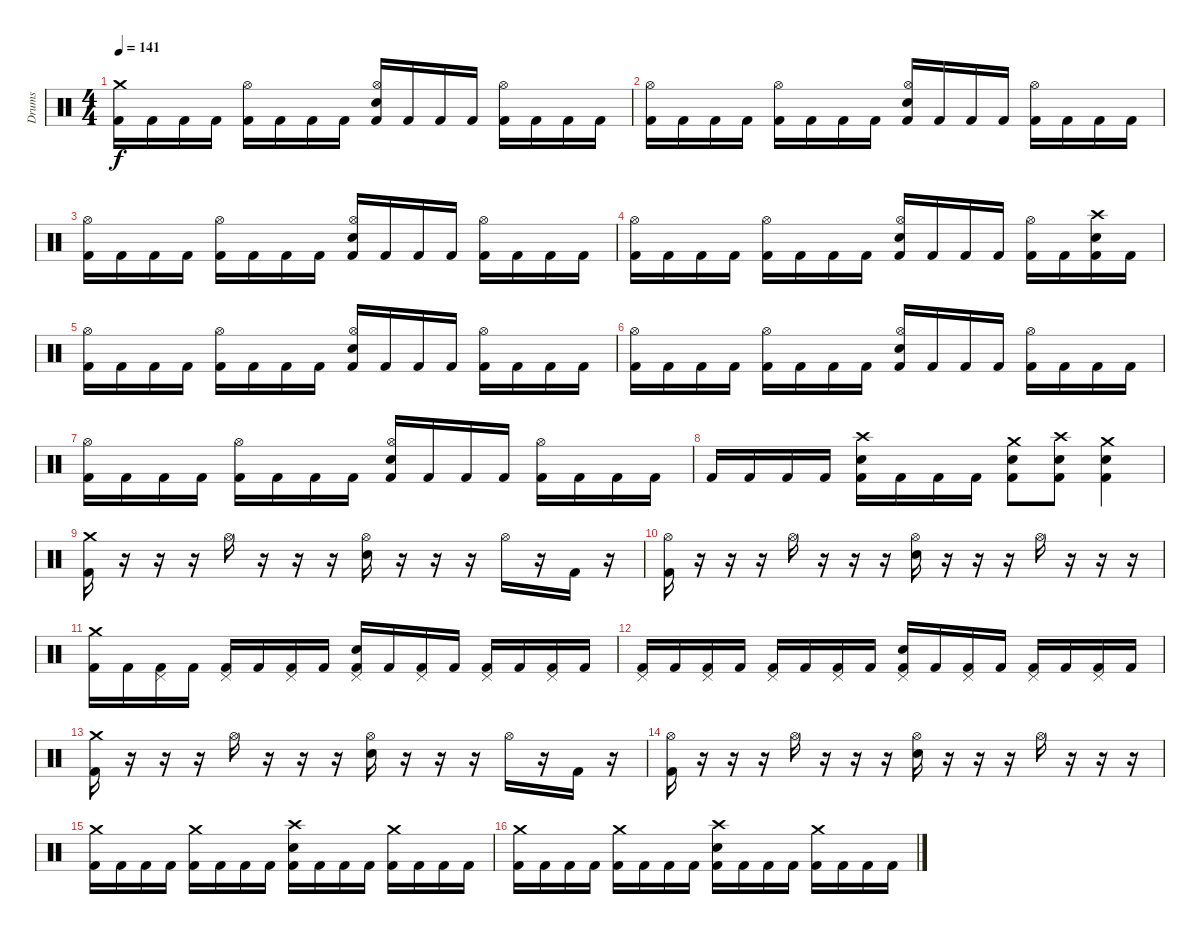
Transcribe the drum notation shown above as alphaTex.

\track ("Drums" "Drums") {instrument percussion}
\staff {score}
\articulation defaults
\ts (4 4)
\tempo 141
\clef neutral
\ks c
("Crash medium (hit)" "Kick (hit) 2").16{dy f} "Kick (hit) 2".16 "Kick (hit) 2".16 "Kick (hit) 2".16 ("Hi-Hat (open)" "Kick (hit) 2").16 "Kick (hit) 2".16 "Kick (hit) 2".16 "Kick (hit) 2".16 ("Hi-Hat (open)" "Electric Snare (hit)" "Kick (hit) 2").16 "Kick (hit) 2".16 "Kick (hit) 2".16 "Kick (hit) 2".16 ("Hi-Hat (open)" "Kick (hit) 2").16 "Kick (hit) 2".16 "Kick (hit) 2".16 "Kick (hit) 2".16 |
("Hi-Hat (open)" "Kick (hit) 2").16 "Kick (hit) 2".16 "Kick (hit) 2".16 "Kick (hit) 2".16 ("Hi-Hat (open)" "Kick (hit) 2").16 "Kick (hit) 2".16 "Kick (hit) 2".16 "Kick (hit) 2".16 ("Hi-Hat (open)" "Electric Snare (hit)" "Kick (hit) 2").16 "Kick (hit) 2".16 "Kick (hit) 2".16 "Kick (hit) 2".16 ("Hi-Hat (open)" "Kick (hit) 2").16 "Kick (hit) 2".16 "Kick (hit) 2".16 "Kick (hit) 2".16 |
("Hi-Hat (open)" "Kick (hit) 2").16 "Kick (hit) 2".16 "Kick (hit) 2".16 "Kick (hit) 2".16 ("Hi-Hat (open)" "Kick (hit) 2").16 "Kick (hit) 2".16 "Kick (hit) 2".16 "Kick (hit) 2".16 ("Hi-Hat (open)" "Electric Snare (hit)" "Kick (hit) 2").16 "Kick (hit) 2".16 "Kick (hit) 2".16 "Kick (hit) 2".16 ("Hi-Hat (open)" "Kick (hit) 2").16 "Kick (hit) 2".16 "Kick (hit) 2".16 "Kick (hit) 2".16 |
("Hi-Hat (open)" "Kick (hit) 2").16 "Kick (hit) 2".16 "Kick (hit) 2".16 "Kick (hit) 2".16 ("Hi-Hat (open)" "Kick (hit) 2").16 "Kick (hit) 2".16 "Kick (hit) 2".16 "Kick (hit) 2".16 ("Hi-Hat (open)" "Electric Snare (hit)" "Kick (hit) 2").16 "Kick (hit) 2".16 "Kick (hit) 2".16 "Kick (hit) 2".16 ("Hi-Hat (open)" "Kick (hit) 2").16 "Kick (hit) 2".16 ("Crash high (hit)" "Electric Snare (hit)" "Kick (hit) 2").16 "Kick (hit) 2".16 |
("Hi-Hat (open)" "Kick (hit) 2").16 "Kick (hit) 2".16 "Kick (hit) 2".16 "Kick (hit) 2".16 ("Hi-Hat (open)" "Kick (hit) 2").16 "Kick (hit) 2".16 "Kick (hit) 2".16 "Kick (hit) 2".16 ("Hi-Hat (open)" "Electric Snare (hit)" "Kick (hit) 2").16 "Kick (hit) 2".16 "Kick (hit) 2".16 "Kick (hit) 2".16 ("Hi-Hat (open)" "Kick (hit) 2").16 "Kick (hit) 2".16 "Kick (hit) 2".16 "Kick (hit) 2".16 |
("Hi-Hat (open)" "Kick (hit) 2").16 "Kick (hit) 2".16 "Kick (hit) 2".16 "Kick (hit) 2".16 ("Hi-Hat (open)" "Kick (hit) 2").16 "Kick (hit) 2".16 "Kick (hit) 2".16 "Kick (hit) 2".16 ("Hi-Hat (open)" "Electric Snare (hit)" "Kick (hit) 2").16 "Kick (hit) 2".16 "Kick (hit) 2".16 "Kick (hit) 2".16 ("Hi-Hat (open)" "Kick (hit) 2").16 "Kick (hit) 2".16 "Kick (hit) 2".16 "Kick (hit) 2".16 |
("Hi-Hat (open)" "Kick (hit) 2").16 "Kick (hit) 2".16 "Kick (hit) 2".16 "Kick (hit) 2".16 ("Hi-Hat (open)" "Kick (hit) 2").16 "Kick (hit) 2".16 "Kick (hit) 2".16 "Kick (hit) 2".16 ("Hi-Hat (open)" "Electric Snare (hit)" "Kick (hit) 2").16 "Kick (hit) 2".16 "Kick (hit) 2".16 "Kick (hit) 2".16 ("Hi-Hat (open)" "Kick (hit) 2").16 "Kick (hit) 2".16 "Kick (hit) 2".16 "Kick (hit) 2".16 |
"Kick (hit) 2".16 "Kick (hit) 2".16 "Kick (hit) 2".16 "Kick (hit) 2".16 ("Crash high (hit)" "Electric Snare (hit)" "Kick (hit) 2").16 "Kick (hit) 2".16 "Kick (hit) 2".16 "Kick (hit) 2".16 ("Crash medium (hit)" "Electric Snare (hit)" "Kick (hit) 2").8 ("Crash high (hit)" "Electric Snare (hit)" "Kick (hit) 2").8 ("Crash medium (hit)" "Electric Snare (hit)" "Kick (hit) 2").4 |
\section ("" "")
("Crash medium (hit)" "Kick (hit) 2").16 r.16 r.16 r.16 "Hi-Hat (open)".16 r.16 r.16 r.16 ("Hi-Hat (open)" "Electric Snare (hit)").16 r.16 r.16 r.16 "Hi-Hat (open)".16 r.16 "Kick (hit) 2".16 r.16 |
("Hi-Hat (open)" "Kick (hit) 2").16 r.16 r.16 r.16 "Hi-Hat (open)".16 r.16 r.16 r.16 ("Hi-Hat (open)" "Electric Snare (hit)").16 r.16 r.16 r.16 "Hi-Hat (open)".16 r.16 r.16 r.16 |
("Crash medium (hit)" "Kick (hit) 2").16 "Kick (hit) 2".16 ("Pedal Hi-Hat (hit)" "Kick (hit) 2").16 "Kick (hit) 2".16 ("Pedal Hi-Hat (hit)" "Kick (hit) 2").16 "Kick (hit) 2".16 ("Pedal Hi-Hat (hit)" "Kick (hit) 2").16 "Kick (hit) 2".16 ("Pedal Hi-Hat (hit)" "Electric Snare (hit)" "Kick (hit) 2").16 "Kick (hit) 2".16 ("Pedal Hi-Hat (hit)" "Kick (hit) 2").16 "Kick (hit) 2".16 ("Pedal Hi-Hat (hit)" "Kick (hit) 2").16 "Kick (hit) 2".16 ("Pedal Hi-Hat (hit)" "Kick (hit) 2").16 "Kick (hit) 2".16 |
("Pedal Hi-Hat (hit)" "Kick (hit) 2").16 "Kick (hit) 2".16 ("Pedal Hi-Hat (hit)" "Kick (hit) 2").16 "Kick (hit) 2".16 ("Pedal Hi-Hat (hit)" "Kick (hit) 2").16 "Kick (hit) 2".16 ("Pedal Hi-Hat (hit)" "Kick (hit) 2").16 "Kick (hit) 2".16 ("Pedal Hi-Hat (hit)" "Electric Snare (hit)" "Kick (hit) 2").16 "Kick (hit) 2".16 ("Pedal Hi-Hat (hit)" "Kick (hit) 2").16 "Kick (hit) 2".16 ("Pedal Hi-Hat (hit)" "Kick (hit) 2").16 "Kick (hit) 2".16 ("Pedal Hi-Hat (hit)" "Kick (hit) 2").16 "Kick (hit) 2".16 |
("Crash medium (hit)" "Kick (hit) 2").16 r.16 r.16 r.16 "Hi-Hat (open)".16 r.16 r.16 r.16 ("Hi-Hat (open)" "Electric Snare (hit)").16 r.16 r.16 r.16 "Hi-Hat (open)".16 r.16 "Kick (hit) 2".16 r.16 |
("Hi-Hat (open)" "Kick (hit) 2").16 r.16 r.16 r.16 "Hi-Hat (open)".16 r.16 r.16 r.16 ("Hi-Hat (open)" "Electric Snare (hit)").16 r.16 r.16 r.16 "Hi-Hat (open)".16 r.16 r.16 r.16 |
("Crash medium (hit)" "Kick (hit) 2").16 "Kick (hit) 2".16 "Kick (hit) 2".16 "Kick (hit) 2".16 ("Crash medium (hit)" "Kick (hit) 2").16 "Kick (hit) 2".16 "Kick (hit) 2".16 "Kick (hit) 2".16 ("Crash high (hit)" "Electric Snare (hit)" "Kick (hit) 2").16 "Kick (hit) 2".16 "Kick (hit) 2".16 "Kick (hit) 2".16 ("Crash medium (hit)" "Kick (hit) 2").16 "Kick (hit) 2".16 "Kick (hit) 2".16 "Kick (hit) 2".16 |
("Crash medium (hit)" "Kick (hit) 2").16 "Kick (hit) 2".16 "Kick (hit) 2".16 "Kick (hit) 2".16 ("Crash medium (hit)" "Kick (hit) 2").16 "Kick (hit) 2".16 "Kick (hit) 2".16 "Kick (hit) 2".16 ("Crash high (hit)" "Electric Snare (hit)" "Kick (hit) 2").16 "Kick (hit) 2".16 "Kick (hit) 2".16 "Kick (hit) 2".16 ("Crash medium (hit)" "Kick (hit) 2").16 "Kick (hit) 2".16 "Kick (hit) 2".16 "Kick (hit) 2".16
